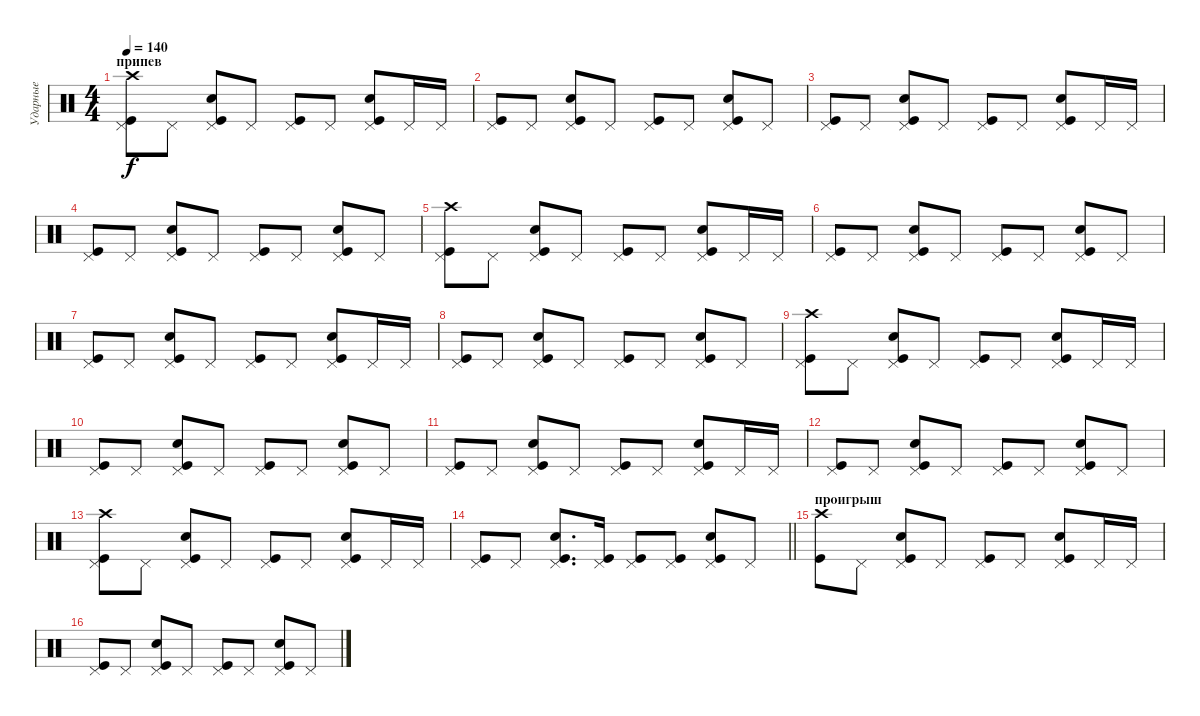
\track ("Ударные" "Ударные") {instrument percussion}
\staff {score}
\articulation defaults
\ts (4 4)
\section ("" "припев")
\tempo 140
\clef neutral
\ks c
("Pedal Hi-Hat (hit)" "Kick (hit)" "Crash high (hit)").8{dy f} "Pedal Hi-Hat (hit)".8 ("Pedal Hi-Hat (hit)" "Kick (hit)" "Snare (hit) 2").8 "Pedal Hi-Hat (hit)".8 ("Pedal Hi-Hat (hit)" "Kick (hit)").8 "Pedal Hi-Hat (hit)".8 ("Pedal Hi-Hat (hit)" "Kick (hit)" "Snare (hit) 2").8 "Pedal Hi-Hat (hit)".16 "Pedal Hi-Hat (hit)".16 |
("Pedal Hi-Hat (hit)" "Kick (hit)").8 "Pedal Hi-Hat (hit)".8 ("Pedal Hi-Hat (hit)" "Kick (hit)" "Snare (hit) 2").8 "Pedal Hi-Hat (hit)".8 ("Pedal Hi-Hat (hit)" "Kick (hit)").8 "Pedal Hi-Hat (hit)".8 ("Pedal Hi-Hat (hit)" "Kick (hit)" "Snare (hit) 2").8 "Pedal Hi-Hat (hit)".8 |
("Pedal Hi-Hat (hit)" "Kick (hit)").8 "Pedal Hi-Hat (hit)".8 ("Pedal Hi-Hat (hit)" "Kick (hit)" "Snare (hit) 2").8 "Pedal Hi-Hat (hit)".8 ("Pedal Hi-Hat (hit)" "Kick (hit)").8 "Pedal Hi-Hat (hit)".8 ("Pedal Hi-Hat (hit)" "Kick (hit)" "Snare (hit) 2").8 "Pedal Hi-Hat (hit)".16 "Pedal Hi-Hat (hit)".16 |
("Pedal Hi-Hat (hit)" "Kick (hit)").8 "Pedal Hi-Hat (hit)".8 ("Pedal Hi-Hat (hit)" "Kick (hit)" "Snare (hit) 2").8 "Pedal Hi-Hat (hit)".8 ("Pedal Hi-Hat (hit)" "Kick (hit)").8 "Pedal Hi-Hat (hit)".8 ("Pedal Hi-Hat (hit)" "Kick (hit)" "Snare (hit) 2").8 "Pedal Hi-Hat (hit)".8 |
("Pedal Hi-Hat (hit)" "Kick (hit)" "Crash high (hit)").8 "Pedal Hi-Hat (hit)".8 ("Pedal Hi-Hat (hit)" "Kick (hit)" "Snare (hit) 2").8 "Pedal Hi-Hat (hit)".8 ("Pedal Hi-Hat (hit)" "Kick (hit)").8 "Pedal Hi-Hat (hit)".8 ("Pedal Hi-Hat (hit)" "Kick (hit)" "Snare (hit) 2").8 "Pedal Hi-Hat (hit)".16 "Pedal Hi-Hat (hit)".16 |
("Pedal Hi-Hat (hit)" "Kick (hit)").8 "Pedal Hi-Hat (hit)".8 ("Pedal Hi-Hat (hit)" "Kick (hit)" "Snare (hit) 2").8 "Pedal Hi-Hat (hit)".8 ("Pedal Hi-Hat (hit)" "Kick (hit)").8 "Pedal Hi-Hat (hit)".8 ("Pedal Hi-Hat (hit)" "Kick (hit)" "Snare (hit) 2").8 "Pedal Hi-Hat (hit)".8 |
("Pedal Hi-Hat (hit)" "Kick (hit)").8 "Pedal Hi-Hat (hit)".8 ("Pedal Hi-Hat (hit)" "Kick (hit)" "Snare (hit) 2").8 "Pedal Hi-Hat (hit)".8 ("Pedal Hi-Hat (hit)" "Kick (hit)").8 "Pedal Hi-Hat (hit)".8 ("Pedal Hi-Hat (hit)" "Kick (hit)" "Snare (hit) 2").8 "Pedal Hi-Hat (hit)".16 "Pedal Hi-Hat (hit)".16 |
("Pedal Hi-Hat (hit)" "Kick (hit)").8 "Pedal Hi-Hat (hit)".8 ("Pedal Hi-Hat (hit)" "Kick (hit)" "Snare (hit) 2").8 "Pedal Hi-Hat (hit)".8 ("Pedal Hi-Hat (hit)" "Kick (hit)").8 "Pedal Hi-Hat (hit)".8 ("Pedal Hi-Hat (hit)" "Kick (hit)" "Snare (hit) 2").8 "Pedal Hi-Hat (hit)".8 |
("Pedal Hi-Hat (hit)" "Kick (hit)" "Crash high (hit)").8 "Pedal Hi-Hat (hit)".8 ("Pedal Hi-Hat (hit)" "Kick (hit)" "Snare (hit) 2").8 "Pedal Hi-Hat (hit)".8 ("Pedal Hi-Hat (hit)" "Kick (hit)").8 "Pedal Hi-Hat (hit)".8 ("Pedal Hi-Hat (hit)" "Kick (hit)" "Snare (hit) 2").8 "Pedal Hi-Hat (hit)".16 "Pedal Hi-Hat (hit)".16 |
("Pedal Hi-Hat (hit)" "Kick (hit)").8 "Pedal Hi-Hat (hit)".8 ("Pedal Hi-Hat (hit)" "Kick (hit)" "Snare (hit) 2").8 "Pedal Hi-Hat (hit)".8 ("Pedal Hi-Hat (hit)" "Kick (hit)").8 "Pedal Hi-Hat (hit)".8 ("Pedal Hi-Hat (hit)" "Kick (hit)" "Snare (hit) 2").8 "Pedal Hi-Hat (hit)".8 |
("Pedal Hi-Hat (hit)" "Kick (hit)").8 "Pedal Hi-Hat (hit)".8 ("Pedal Hi-Hat (hit)" "Kick (hit)" "Snare (hit) 2").8 "Pedal Hi-Hat (hit)".8 ("Pedal Hi-Hat (hit)" "Kick (hit)").8 "Pedal Hi-Hat (hit)".8 ("Pedal Hi-Hat (hit)" "Kick (hit)" "Snare (hit) 2").8 "Pedal Hi-Hat (hit)".16 "Pedal Hi-Hat (hit)".16 |
("Pedal Hi-Hat (hit)" "Kick (hit)").8 "Pedal Hi-Hat (hit)".8 ("Pedal Hi-Hat (hit)" "Kick (hit)" "Snare (hit) 2").8 "Pedal Hi-Hat (hit)".8 ("Pedal Hi-Hat (hit)" "Kick (hit)").8 "Pedal Hi-Hat (hit)".8 ("Pedal Hi-Hat (hit)" "Kick (hit)" "Snare (hit) 2").8 "Pedal Hi-Hat (hit)".8 |
("Pedal Hi-Hat (hit)" "Kick (hit)" "Crash high (hit)").8 "Pedal Hi-Hat (hit)".8 ("Pedal Hi-Hat (hit)" "Kick (hit)" "Snare (hit) 2").8 "Pedal Hi-Hat (hit)".8 ("Pedal Hi-Hat (hit)" "Kick (hit)").8 "Pedal Hi-Hat (hit)".8 ("Pedal Hi-Hat (hit)" "Kick (hit)" "Snare (hit) 2").8 "Pedal Hi-Hat (hit)".16 "Pedal Hi-Hat (hit)".16 |
\barLineRight lightlight
("Pedal Hi-Hat (hit)" "Kick (hit)").8 "Pedal Hi-Hat (hit)".8 ("Pedal Hi-Hat (hit)" "Kick (hit)" "Snare (hit) 2").8{d} ("Pedal Hi-Hat (hit)" "Kick (hit)").16 ("Pedal Hi-Hat (hit)" "Kick (hit)").8 ("Pedal Hi-Hat (hit)" "Kick (hit)").8 ("Pedal Hi-Hat (hit)" "Kick (hit)" "Snare (hit) 2").8 "Pedal Hi-Hat (hit)".8 |
\section ("" "проигрыш")
("Crash high (hit)" "Kick (hit)").8 "Pedal Hi-Hat (hit)".8 ("Pedal Hi-Hat (hit)" "Kick (hit)" "Snare (hit) 2").8 "Pedal Hi-Hat (hit)".8 ("Pedal Hi-Hat (hit)" "Kick (hit)").8 "Pedal Hi-Hat (hit)".8 ("Pedal Hi-Hat (hit)" "Kick (hit)" "Snare (hit) 2").8 "Pedal Hi-Hat (hit)".16 "Pedal Hi-Hat (hit)".16 |
("Pedal Hi-Hat (hit)" "Kick (hit)").8 "Pedal Hi-Hat (hit)".8 ("Pedal Hi-Hat (hit)" "Kick (hit)" "Snare (hit) 2").8 "Pedal Hi-Hat (hit)".8 ("Pedal Hi-Hat (hit)" "Kick (hit)").8 "Pedal Hi-Hat (hit)".8 ("Pedal Hi-Hat (hit)" "Kick (hit)" "Snare (hit) 2").8 "Pedal Hi-Hat (hit)".8
